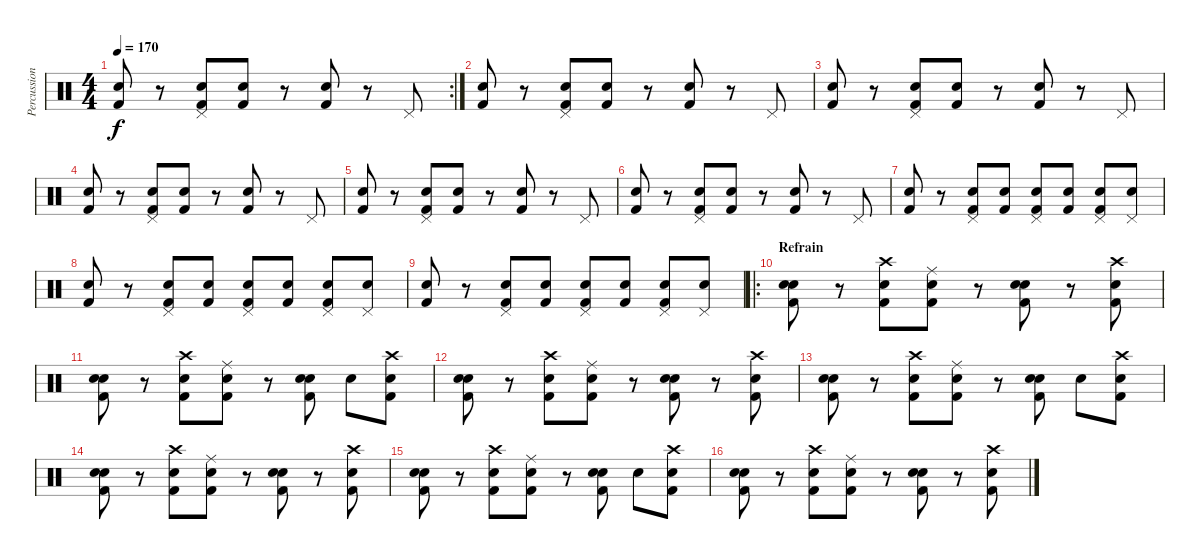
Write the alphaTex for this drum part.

\track ("Percussions" "Percussion") {instrument percussion}
\staff {score}
\articulation defaults
\rc 2
\ts (4 4)
\tempo 170
\clef neutral
\ks c
("Snare (hit) 2" "Kick (hit) 2").8{dy f} r.8 ("Pedal Hi-Hat (hit)" "Kick (hit) 2" "Snare (hit) 2").8 ("Kick (hit) 2" "Snare (hit) 2").8 r.8 ("Kick (hit) 2" "Snare (hit) 2").8 r.8 "Pedal Hi-Hat (hit)".8 |
("Snare (hit) 2" "Kick (hit) 2").8 r.8 ("Pedal Hi-Hat (hit)" "Kick (hit) 2" "Snare (hit) 2").8 ("Kick (hit) 2" "Snare (hit) 2").8 r.8 ("Kick (hit) 2" "Snare (hit) 2").8 r.8 "Pedal Hi-Hat (hit)".8 |
("Snare (hit) 2" "Kick (hit) 2").8 r.8 ("Pedal Hi-Hat (hit)" "Kick (hit) 2" "Snare (hit) 2").8 ("Kick (hit) 2" "Snare (hit) 2").8 r.8 ("Kick (hit) 2" "Snare (hit) 2").8 r.8 "Pedal Hi-Hat (hit)".8 |
("Snare (hit) 2" "Kick (hit) 2").8 r.8 ("Pedal Hi-Hat (hit)" "Kick (hit) 2" "Snare (hit) 2").8 ("Kick (hit) 2" "Snare (hit) 2").8 r.8 ("Kick (hit) 2" "Snare (hit) 2").8 r.8 "Pedal Hi-Hat (hit)".8 |
("Snare (hit) 2" "Kick (hit) 2").8 r.8 ("Pedal Hi-Hat (hit)" "Kick (hit) 2" "Snare (hit) 2").8 ("Kick (hit) 2" "Snare (hit) 2").8 r.8 ("Kick (hit) 2" "Snare (hit) 2").8 r.8 "Pedal Hi-Hat (hit)".8 |
("Snare (hit) 2" "Kick (hit) 2").8 r.8 ("Pedal Hi-Hat (hit)" "Kick (hit) 2" "Snare (hit) 2").8 ("Kick (hit) 2" "Snare (hit) 2").8 r.8 ("Kick (hit) 2" "Snare (hit) 2").8 r.8 "Pedal Hi-Hat (hit)".8 |
("Snare (hit) 2" "Kick (hit) 2").8 r.8 ("Pedal Hi-Hat (hit)" "Kick (hit) 2" "Snare (hit) 2").8 ("Kick (hit) 2" "Snare (hit) 2").8 ("Pedal Hi-Hat (hit)" "Kick (hit) 2" "Snare (hit) 2").8 ("Kick (hit) 2" "Snare (hit) 2").8 ("Pedal Hi-Hat (hit)" "Kick (hit) 2" "Snare (hit) 2").8 ("Pedal Hi-Hat (hit)" "Snare (hit) 2").8 |
("Snare (hit) 2" "Kick (hit) 2").8 r.8 ("Pedal Hi-Hat (hit)" "Kick (hit) 2" "Snare (hit) 2").8 ("Kick (hit) 2" "Snare (hit) 2").8 ("Pedal Hi-Hat (hit)" "Kick (hit) 2" "Snare (hit) 2").8 ("Kick (hit) 2" "Snare (hit) 2").8 ("Pedal Hi-Hat (hit)" "Kick (hit) 2" "Snare (hit) 2").8 ("Pedal Hi-Hat (hit)" "Snare (hit) 2").8 |
("Snare (hit) 2" "Kick (hit) 2").8 r.8 ("Pedal Hi-Hat (hit)" "Kick (hit) 2" "Snare (hit) 2").8 ("Kick (hit) 2" "Snare (hit) 2").8 ("Pedal Hi-Hat (hit)" "Kick (hit) 2" "Snare (hit) 2").8 ("Kick (hit) 2" "Snare (hit) 2").8 ("Pedal Hi-Hat (hit)" "Kick (hit) 2" "Snare (hit) 2").8 ("Pedal Hi-Hat (hit)" "Snare (hit) 2").8 |
\ro
\section ("" "Refrain")
("Electric Snare (hit)" "Kick (hit) 2" "Snare (hit) 2").8 r.8 ("Electric Snare (hit)" "Kick (hit) 2" "Crash high (hit)").8 ("Ride (middle)" "Snare (hit) 2" "Kick (hit) 2").8 r.8 ("Electric Snare (hit)" "Kick (hit) 2" "Snare (hit) 2").8 r.8 ("Snare (hit) 2" "Crash high (hit)" "Kick (hit) 2").8 |
("Electric Snare (hit)" "Kick (hit) 2" "Snare (hit) 2").8 r.8 ("Electric Snare (hit)" "Kick (hit) 2" "Crash high (hit)").8 ("Ride (middle)" "Snare (hit) 2" "Kick (hit) 2").8 r.8 ("Electric Snare (hit)" "Kick (hit) 2" "Snare (hit) 2").8 "Snare (hit) 2".8 ("Snare (hit) 2" "Crash high (hit)" "Kick (hit) 2").8 |
("Electric Snare (hit)" "Kick (hit) 2" "Snare (hit) 2").8 r.8 ("Electric Snare (hit)" "Kick (hit) 2" "Crash high (hit)").8 ("Ride (middle)" "Snare (hit) 2" "Kick (hit) 2").8 r.8 ("Electric Snare (hit)" "Kick (hit) 2" "Snare (hit) 2").8 r.8 ("Snare (hit) 2" "Crash high (hit)" "Kick (hit) 2").8 |
("Electric Snare (hit)" "Kick (hit) 2" "Snare (hit) 2").8 r.8 ("Electric Snare (hit)" "Kick (hit) 2" "Crash high (hit)").8 ("Ride (middle)" "Snare (hit) 2" "Kick (hit) 2").8 r.8 ("Electric Snare (hit)" "Kick (hit) 2" "Snare (hit) 2").8 "Snare (hit) 2".8 ("Snare (hit) 2" "Crash high (hit)" "Kick (hit) 2").8 |
("Electric Snare (hit)" "Kick (hit) 2" "Snare (hit) 2").8 r.8 ("Electric Snare (hit)" "Kick (hit) 2" "Crash high (hit)").8 ("Ride (middle)" "Snare (hit) 2" "Kick (hit) 2").8 r.8 ("Electric Snare (hit)" "Kick (hit) 2" "Snare (hit) 2").8 r.8 ("Snare (hit) 2" "Crash high (hit)" "Kick (hit) 2").8 |
("Electric Snare (hit)" "Kick (hit) 2" "Snare (hit) 2").8 r.8 ("Electric Snare (hit)" "Kick (hit) 2" "Crash high (hit)").8 ("Ride (middle)" "Snare (hit) 2" "Kick (hit) 2").8 r.8 ("Electric Snare (hit)" "Kick (hit) 2" "Snare (hit) 2").8 "Snare (hit) 2".8 ("Snare (hit) 2" "Crash high (hit)" "Kick (hit) 2").8 |
("Electric Snare (hit)" "Kick (hit) 2" "Snare (hit) 2").8 r.8 ("Electric Snare (hit)" "Kick (hit) 2" "Crash high (hit)").8 ("Ride (middle)" "Snare (hit) 2" "Kick (hit) 2").8 r.8 ("Electric Snare (hit)" "Kick (hit) 2" "Snare (hit) 2").8 r.8 ("Snare (hit) 2" "Crash high (hit)" "Kick (hit) 2").8
